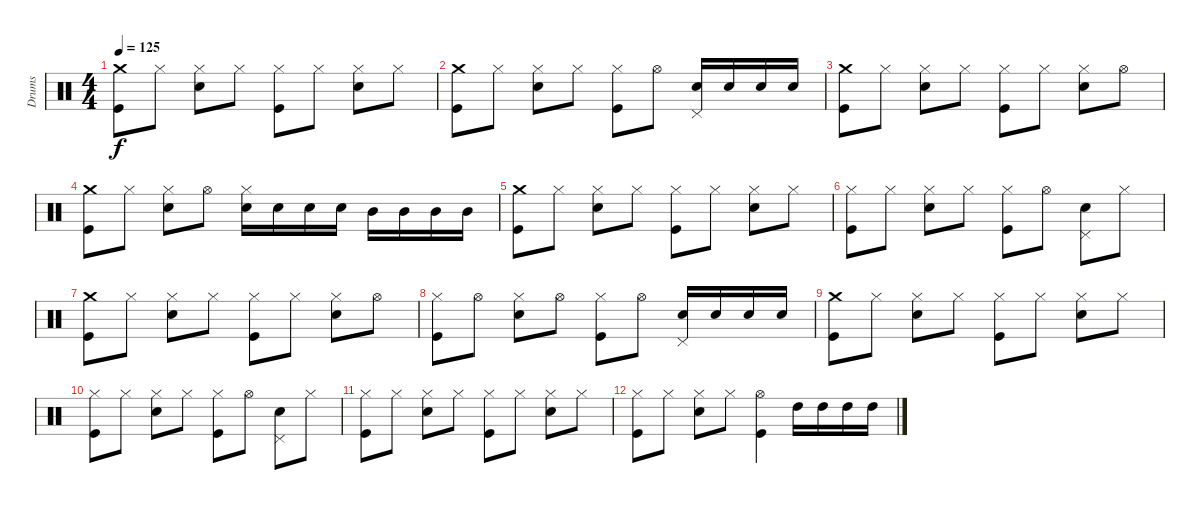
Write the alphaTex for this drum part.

\track ("Drums" "Drums") {instrument percussion}
\staff {score}
\articulation defaults
\ts (4 4)
\tempo 125
\clef neutral
\ks c
("Crash medium (hit)" "Kick (hit)").8{dy f} "Hi-Hat (closed)".8 ("Hi-Hat (closed)" "Electric Snare (hit)").8 "Hi-Hat (closed)".8 ("Hi-Hat (closed)" "Kick (hit)").8 "Hi-Hat (closed)".8 ("Hi-Hat (closed)" "Electric Snare (hit)").8 "Hi-Hat (closed)".8 |
("Crash medium (hit)" "Kick (hit)").8 "Hi-Hat (closed)".8 ("Hi-Hat (closed)" "Electric Snare (hit)").8 "Hi-Hat (closed)".8 ("Hi-Hat (closed)" "Kick (hit)").8 "Hi-Hat (open)".8 ("Pedal Hi-Hat (hit)" "Electric Snare (hit)").16 "Electric Snare (hit)".16 "Electric Snare (hit)".16 "Electric Snare (hit)".16 |
("Crash medium (hit)" "Kick (hit)").8 "Hi-Hat (closed)".8 ("Hi-Hat (closed)" "Electric Snare (hit)").8 "Hi-Hat (closed)".8 ("Hi-Hat (closed)" "Kick (hit)").8 "Hi-Hat (closed)".8 ("Hi-Hat (closed)" "Electric Snare (hit)").8 "Hi-Hat (open)".8 |
("Crash medium (hit)" "Kick (hit)").8 "Hi-Hat (closed)".8 ("Hi-Hat (closed)" "Electric Snare (hit)").8 "Hi-Hat (open)".8 ("Hi-Hat (closed)" "Electric Snare (hit)").16 "Electric Snare (hit)".16 "Electric Snare (hit)".16 "Electric Snare (hit)".16 "Mid Tom (hit)".16 "Mid Tom (hit)".16 "Mid Tom (hit)".16 "Mid Tom (hit)".16 |
("Crash medium (hit)" "Kick (hit)").8 "Hi-Hat (closed)".8 ("Hi-Hat (closed)" "Electric Snare (hit)").8 "Hi-Hat (closed)".8 ("Hi-Hat (closed)" "Kick (hit)").8 "Hi-Hat (closed)".8 ("Hi-Hat (closed)" "Electric Snare (hit)").8 "Hi-Hat (closed)".8 |
("Hi-Hat (closed)" "Kick (hit)").8 "Hi-Hat (closed)".8 ("Hi-Hat (closed)" "Electric Snare (hit)").8 "Hi-Hat (closed)".8 ("Hi-Hat (closed)" "Kick (hit)").8 "Hi-Hat (open)".8 ("Pedal Hi-Hat (hit)" "Electric Snare (hit)").8 "Hi-Hat (closed)".8 |
("Crash medium (hit)" "Kick (hit)").8 "Hi-Hat (closed)".8 ("Hi-Hat (closed)" "Electric Snare (hit)").8 "Hi-Hat (closed)".8 ("Hi-Hat (closed)" "Kick (hit)").8 "Hi-Hat (closed)".8 ("Hi-Hat (closed)" "Electric Snare (hit)").8 "Hi-Hat (open)".8 |
("Hi-Hat (closed)" "Kick (hit)").8 "Hi-Hat (open)".8 ("Hi-Hat (closed)" "Electric Snare (hit)").8 "Hi-Hat (open)".8 ("Hi-Hat (closed)" "Kick (hit)").8 "Hi-Hat (open)".8 ("Pedal Hi-Hat (hit)" "Electric Snare (hit)").16 "Electric Snare (hit)".16 "Electric Snare (hit)".16 "Electric Snare (hit)".16 |
("Crash medium (hit)" "Kick (hit)").8{volume 0} "Hi-Hat (closed)".8 ("Hi-Hat (closed)" "Electric Snare (hit)").8 "Hi-Hat (closed)".8 ("Hi-Hat (closed)" "Kick (hit)").8 "Hi-Hat (closed)".8 ("Hi-Hat (closed)" "Electric Snare (hit)").8 "Hi-Hat (closed)".8 |
("Hi-Hat (closed)" "Kick (hit)").8 "Hi-Hat (closed)".8 ("Hi-Hat (closed)" "Electric Snare (hit)").8 "Hi-Hat (closed)".8 ("Hi-Hat (closed)" "Kick (hit)").8 "Hi-Hat (open)".8 ("Pedal Hi-Hat (hit)" "Electric Snare (hit)").8 "Hi-Hat (closed)".8 |
("Hi-Hat (closed)" "Kick (hit)").8 "Hi-Hat (closed)".8 ("Hi-Hat (closed)" "Electric Snare (hit)").8 "Hi-Hat (closed)".8 ("Hi-Hat (closed)" "Kick (hit)").8 "Hi-Hat (closed)".8 ("Hi-Hat (closed)" "Electric Snare (hit)").8 "Hi-Hat (closed)".8 |
("Hi-Hat (closed)" "Kick (hit)").8 "Hi-Hat (closed)".8 ("Hi-Hat (closed)" "Electric Snare (hit)").8 "Hi-Hat (closed)".8 ("Hi-Hat (open)" "Kick (hit)").4 "High Tom (hit)".16 "High Tom (hit)".16 "High Tom (hit)".16 "High Tom (hit)".16
